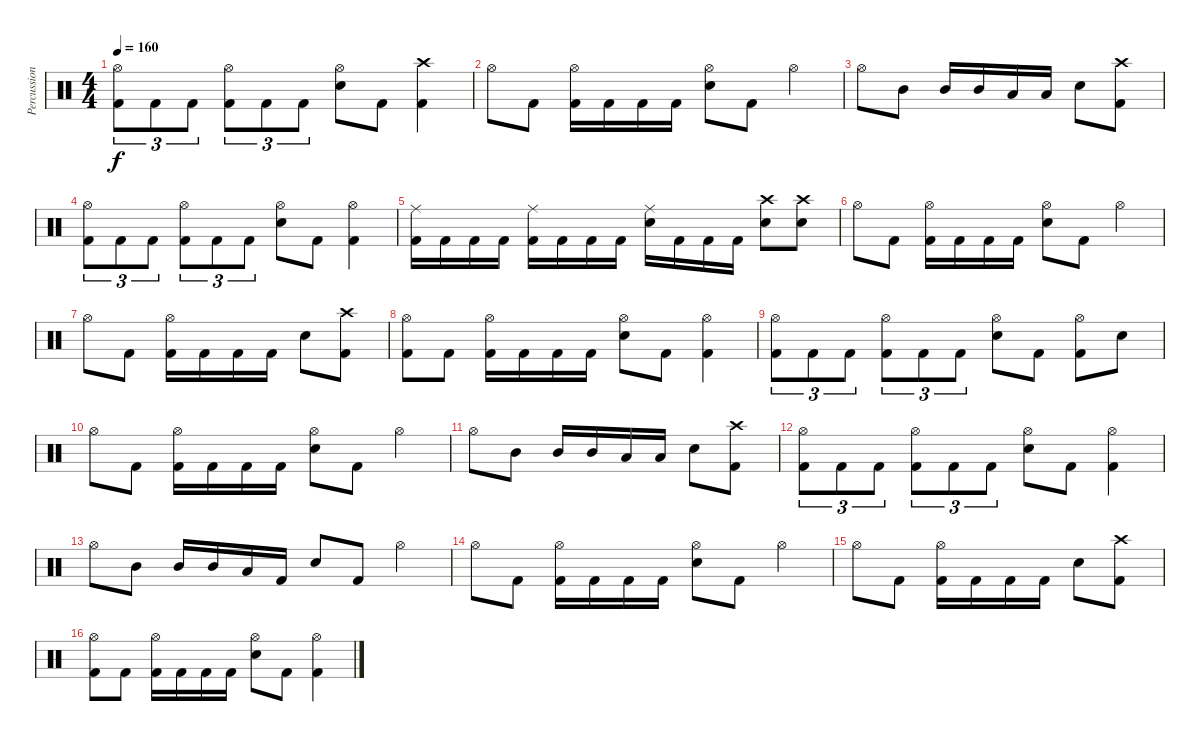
\track ("Percussion" "Percussion") {instrument percussion}
\staff {score}
\articulation defaults
\ts (4 4)
\tempo 160
\clef neutral
\ks c
("Hi-Hat (open)" "Kick (hit) 2").8{tu (3 2) dy f} "Kick (hit) 2".8{tu (3 2)} "Kick (hit) 2".8{tu (3 2)} ("Hi-Hat (open)" "Kick (hit) 2").8{tu (3 2)} "Kick (hit) 2".8{tu (3 2)} "Kick (hit) 2".8{tu (3 2)} ("Hi-Hat (open)" "Electric Snare (hit)").8 "Kick (hit) 2".8 ("Crash high (hit)" "Kick (hit) 2").4 |
"Hi-Hat (open)".8 "Kick (hit) 2".8 ("Hi-Hat (open)" "Kick (hit) 2").16 "Kick (hit) 2".16 "Kick (hit) 2".16 "Kick (hit) 2".16 ("Hi-Hat (open)" "Electric Snare (hit)").8 "Kick (hit) 2".8 "Hi-Hat (open)".4 |
"Hi-Hat (open)".8 "Mid Tom (hit)".8 "Mid Tom (hit)".16 "Mid Tom (hit)".16 "Low Tom (hit)".16 "Low Tom (hit)".16 "Electric Snare (hit)".8 ("Crash high (hit)" "Kick (hit) 2").8 |
("Hi-Hat (open)" "Kick (hit) 2").8{tu (3 2)} "Kick (hit) 2".8{tu (3 2)} "Kick (hit) 2".8{tu (3 2)} ("Hi-Hat (open)" "Kick (hit) 2").8{tu (3 2)} "Kick (hit) 2".8{tu (3 2)} "Kick (hit) 2".8{tu (3 2)} ("Hi-Hat (open)" "Electric Snare (hit)").8 "Kick (hit) 2".8 ("Hi-Hat (open)" "Kick (hit) 2").4 |
("Ride (middle)" "Kick (hit) 2").16 "Kick (hit) 2".16 "Kick (hit) 2".16 "Kick (hit) 2".16 ("Ride (middle)" "Kick (hit) 2").16 "Kick (hit) 2".16 "Kick (hit) 2".16 "Kick (hit) 2".16 ("Ride (middle)" "Electric Snare (hit)").16 "Kick (hit) 2".16 "Kick (hit) 2".16 "Kick (hit) 2".16 ("Crash high (hit)" "Electric Snare (hit)").8 ("Crash high (hit)" "Electric Snare (hit)").8 |
"Hi-Hat (open)".8 "Kick (hit) 2".8 ("Hi-Hat (open)" "Kick (hit) 2").16 "Kick (hit) 2".16 "Kick (hit) 2".16 "Kick (hit) 2".16 ("Hi-Hat (open)" "Electric Snare (hit)").8 "Kick (hit) 2".8 "Hi-Hat (open)".4 |
"Hi-Hat (open)".8 "Kick (hit) 2".8 ("Hi-Hat (open)" "Kick (hit) 2").16 "Kick (hit) 2".16 "Kick (hit) 2".16 "Kick (hit) 2".16 "Electric Snare (hit)".8 ("Crash high (hit)" "Kick (hit) 2").8 |
("Hi-Hat (open)" "Kick (hit) 2").8 "Kick (hit) 2".8 ("Hi-Hat (open)" "Kick (hit) 2").16 "Kick (hit) 2".16 "Kick (hit) 2".16 "Kick (hit) 2".16 ("Hi-Hat (open)" "Electric Snare (hit)").8 "Kick (hit) 2".8 ("Hi-Hat (open)" "Kick (hit) 2").4 |
("Hi-Hat (open)" "Kick (hit) 2").8{tu (3 2)} "Kick (hit) 2".8{tu (3 2)} "Kick (hit) 2".8{tu (3 2)} ("Hi-Hat (open)" "Kick (hit) 2").8{tu (3 2)} "Kick (hit) 2".8{tu (3 2)} "Kick (hit) 2".8{tu (3 2)} ("Hi-Hat (open)" "Electric Snare (hit)").8 "Kick (hit) 2".8 ("Hi-Hat (open)" "Kick (hit) 2").8 "Electric Snare (hit)".8 |
"Hi-Hat (open)".8 "Kick (hit) 2".8 ("Hi-Hat (open)" "Kick (hit) 2").16 "Kick (hit) 2".16 "Kick (hit) 2".16 "Kick (hit) 2".16 ("Hi-Hat (open)" "Electric Snare (hit)").8 "Kick (hit) 2".8 "Hi-Hat (open)".4 |
"Hi-Hat (open)".8 "Mid Tom (hit)".8 "Mid Tom (hit)".16 "Mid Tom (hit)".16 "Low Tom (hit)".16 "Low Tom (hit)".16 "Electric Snare (hit)".8 ("Crash high (hit)" "Kick (hit) 2").8 |
("Hi-Hat (open)" "Kick (hit) 2").8{tu (3 2)} "Kick (hit) 2".8{tu (3 2)} "Kick (hit) 2".8{tu (3 2)} ("Hi-Hat (open)" "Kick (hit) 2").8{tu (3 2)} "Kick (hit) 2".8{tu (3 2)} "Kick (hit) 2".8{tu (3 2)} ("Hi-Hat (open)" "Electric Snare (hit)").8 "Kick (hit) 2".8 ("Hi-Hat (open)" "Kick (hit) 2").4 |
"Hi-Hat (open)".8 "Mid Tom (hit)".8 "Mid Tom (hit)".16 "Mid Tom (hit)".16 "Low Tom (hit)".16 "Kick (hit) 2".16 "Electric Snare (hit)".8 "Kick (hit) 2".8 "Hi-Hat (open)".4 |
"Hi-Hat (open)".8 "Kick (hit) 2".8 ("Hi-Hat (open)" "Kick (hit) 2").16 "Kick (hit) 2".16 "Kick (hit) 2".16 "Kick (hit) 2".16 ("Hi-Hat (open)" "Electric Snare (hit)").8 "Kick (hit) 2".8 "Hi-Hat (open)".4 |
"Hi-Hat (open)".8 "Kick (hit) 2".8 ("Hi-Hat (open)" "Kick (hit) 2").16 "Kick (hit) 2".16 "Kick (hit) 2".16 "Kick (hit) 2".16 "Electric Snare (hit)".8 ("Crash high (hit)" "Kick (hit) 2").8 |
("Hi-Hat (open)" "Kick (hit) 2").8 "Kick (hit) 2".8 ("Hi-Hat (open)" "Kick (hit) 2").16 "Kick (hit) 2".16 "Kick (hit) 2".16 "Kick (hit) 2".16 ("Hi-Hat (open)" "Electric Snare (hit)").8 "Kick (hit) 2".8 ("Hi-Hat (open)" "Kick (hit) 2").4
